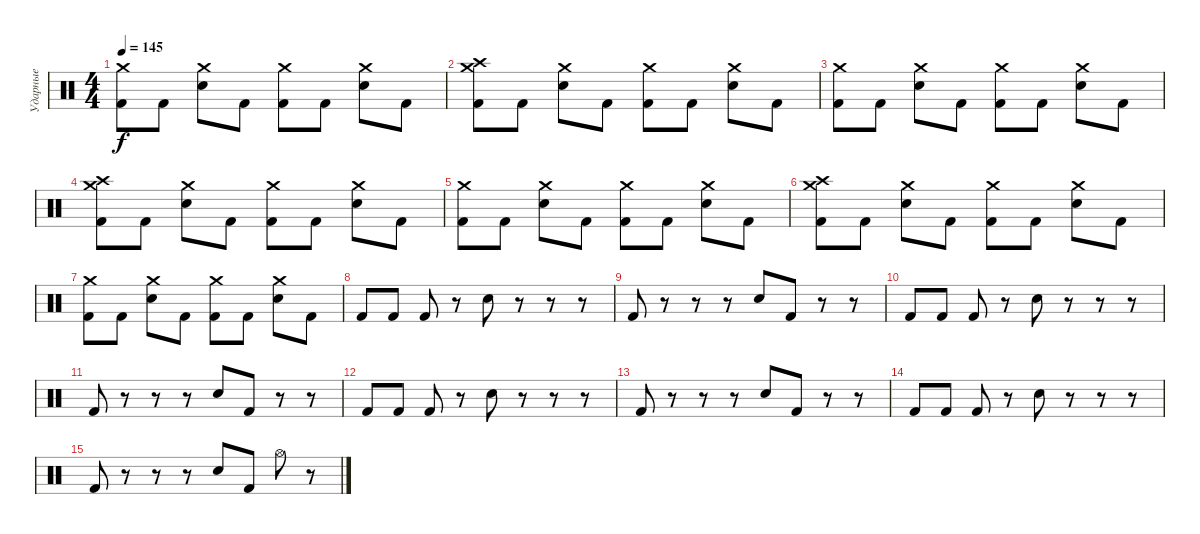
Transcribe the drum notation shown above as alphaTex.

\track ("Ударные" "Ударные") {instrument percussion}
\staff {score}
\articulation defaults
\ts (4 4)
\tempo 145
\clef neutral
\ks c
("Crash medium (hit)" "Kick (hit) 2").8{dy f} "Kick (hit) 2".8 ("Crash medium (hit)" "Snare (hit) 2").8 "Kick (hit) 2".8 ("Crash medium (hit)" "Kick (hit) 2").8 "Kick (hit) 2".8 ("Crash medium (hit)" "Snare (hit) 2").8 "Kick (hit) 2".8 |
("Crash high (hit)" "Crash medium (hit)" "Kick (hit) 2").8 "Kick (hit) 2".8 ("Crash medium (hit)" "Snare (hit) 2").8 "Kick (hit) 2".8 ("Crash medium (hit)" "Kick (hit) 2").8 "Kick (hit) 2".8 ("Crash medium (hit)" "Snare (hit) 2").8 "Kick (hit) 2".8 |
("Crash medium (hit)" "Kick (hit) 2").8 "Kick (hit) 2".8 ("Crash medium (hit)" "Snare (hit) 2").8 "Kick (hit) 2".8 ("Crash medium (hit)" "Kick (hit) 2").8 "Kick (hit) 2".8 ("Crash medium (hit)" "Snare (hit) 2").8 "Kick (hit) 2".8 |
("Crash high (hit)" "Crash medium (hit)" "Kick (hit) 2").8 "Kick (hit) 2".8 ("Crash medium (hit)" "Snare (hit) 2").8 "Kick (hit) 2".8 ("Crash medium (hit)" "Kick (hit) 2").8 "Kick (hit) 2".8 ("Crash medium (hit)" "Snare (hit) 2").8 "Kick (hit) 2".8 |
("Crash medium (hit)" "Kick (hit) 2").8 "Kick (hit) 2".8 ("Crash medium (hit)" "Snare (hit) 2").8 "Kick (hit) 2".8 ("Crash medium (hit)" "Kick (hit) 2").8 "Kick (hit) 2".8 ("Crash medium (hit)" "Snare (hit) 2").8 "Kick (hit) 2".8 |
("Crash high (hit)" "Crash medium (hit)" "Kick (hit) 2").8 "Kick (hit) 2".8 ("Crash medium (hit)" "Snare (hit) 2").8 "Kick (hit) 2".8 ("Crash medium (hit)" "Kick (hit) 2").8 "Kick (hit) 2".8 ("Crash medium (hit)" "Snare (hit) 2").8 "Kick (hit) 2".8 |
("Crash medium (hit)" "Kick (hit) 2").8 "Kick (hit) 2".8 ("Crash medium (hit)" "Snare (hit) 2").8 "Kick (hit) 2".8 ("Crash medium (hit)" "Kick (hit) 2").8 "Kick (hit) 2".8 ("Crash medium (hit)" "Snare (hit) 2").8 "Kick (hit) 2".8 |
"Kick (hit) 2".8 "Kick (hit) 2".8 "Kick (hit) 2".8 r.8 "Snare (hit) 2".8 r.8 r.8 r.8 |
"Kick (hit) 2".8 r.8 r.8 r.8 "Snare (hit) 2".8 "Kick (hit) 2".8 r.8 r.8 |
"Kick (hit) 2".8 "Kick (hit) 2".8 "Kick (hit) 2".8 r.8 "Snare (hit) 2".8 r.8 r.8 r.8 |
"Kick (hit) 2".8 r.8 r.8 r.8 "Snare (hit) 2".8 "Kick (hit) 2".8 r.8 r.8 |
"Kick (hit) 2".8 "Kick (hit) 2".8 "Kick (hit) 2".8 r.8 "Snare (hit) 2".8 r.8 r.8 r.8 |
"Kick (hit) 2".8 r.8 r.8 r.8 "Snare (hit) 2".8 "Kick (hit) 2".8 r.8 r.8 |
"Kick (hit) 2".8 "Kick (hit) 2".8 "Kick (hit) 2".8 r.8 "Snare (hit) 2".8 r.8 r.8 r.8 |
"Kick (hit) 2".8 r.8 r.8 r.8 "Snare (hit) 2".8 "Kick (hit) 2".8 "Hi-Hat (open)".8 r.8
